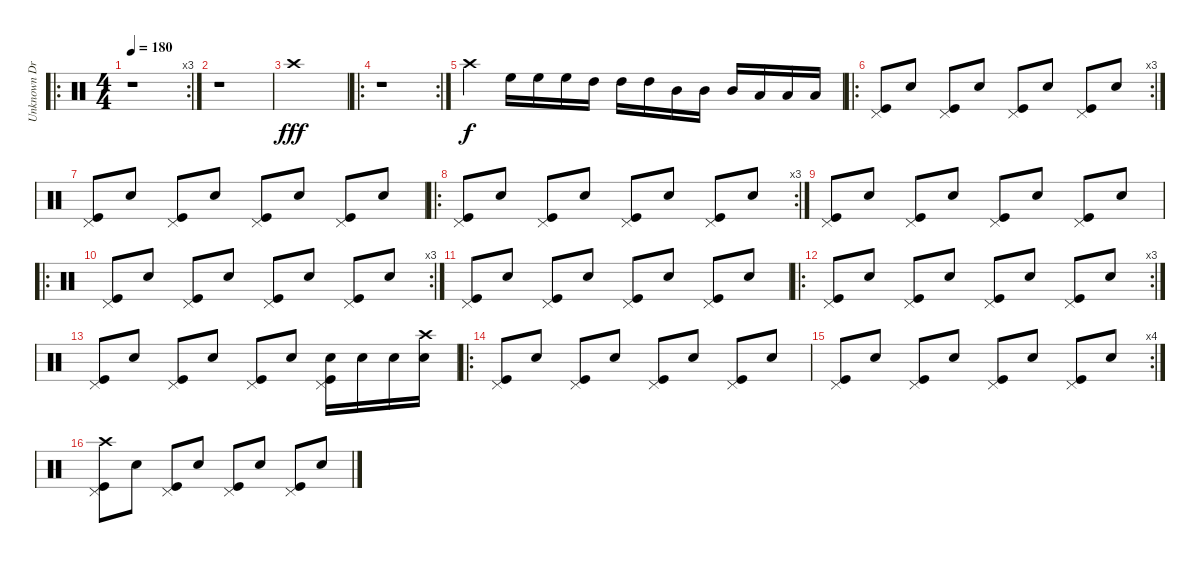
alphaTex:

\track ("Unknown Drummer" "Unknown Dr") {instrument percussion}
\staff {score}
\articulation defaults
\ro
\rc 3
\ts (4 4)
\tempo 180
\clef neutral
\ks c
r.1{dy fff} |
r.1 |
"Crash high (hit)".1 |
\ro
\rc 2
r.1 |
"Crash high (hit)".4{dy f} "High Floor Tom (hit)".16 "High Floor Tom (hit)".16 "High Floor Tom (hit)".16 "High Tom (hit)".16 "High Tom (hit)".16 "High Tom (hit)".16 "Mid Tom (hit)".16 "Mid Tom (hit)".16 "Mid Tom (hit)".16 "Low Tom (hit)".16 "Low Tom (hit)".16 "Low Tom (hit)".16 |
\ro
\rc 3
("Pedal Hi-Hat (hit)" "Kick (hit)").8 "Snare (hit) 2".8 ("Pedal Hi-Hat (hit)" "Kick (hit)").8 "Snare (hit) 2".8 ("Pedal Hi-Hat (hit)" "Kick (hit)").8 "Snare (hit) 2".8 ("Pedal Hi-Hat (hit)" "Kick (hit)").8 "Snare (hit) 2".8 |
("Pedal Hi-Hat (hit)" "Kick (hit)").8 "Snare (hit) 2".8 ("Pedal Hi-Hat (hit)" "Kick (hit)").8 "Snare (hit) 2".8 ("Pedal Hi-Hat (hit)" "Kick (hit)").8 "Snare (hit) 2".8 ("Pedal Hi-Hat (hit)" "Kick (hit)").8 "Snare (hit) 2".8 |
\ro
\rc 3
("Pedal Hi-Hat (hit)" "Kick (hit)").8 "Snare (hit) 2".8 ("Pedal Hi-Hat (hit)" "Kick (hit)").8 "Snare (hit) 2".8 ("Pedal Hi-Hat (hit)" "Kick (hit)").8 "Snare (hit) 2".8 ("Pedal Hi-Hat (hit)" "Kick (hit)").8 "Snare (hit) 2".8 |
("Pedal Hi-Hat (hit)" "Kick (hit)").8 "Snare (hit) 2".8 ("Pedal Hi-Hat (hit)" "Kick (hit)").8 "Snare (hit) 2".8 ("Pedal Hi-Hat (hit)" "Kick (hit)").8 "Snare (hit) 2".8 ("Pedal Hi-Hat (hit)" "Kick (hit)").8 "Snare (hit) 2".8 |
\ro
\rc 3
("Pedal Hi-Hat (hit)" "Kick (hit)").8 "Snare (hit) 2".8 ("Pedal Hi-Hat (hit)" "Kick (hit)").8 "Snare (hit) 2".8 ("Pedal Hi-Hat (hit)" "Kick (hit)").8 "Snare (hit) 2".8 ("Pedal Hi-Hat (hit)" "Kick (hit)").8 "Snare (hit) 2".8 |
("Pedal Hi-Hat (hit)" "Kick (hit)").8 "Snare (hit) 2".8 ("Pedal Hi-Hat (hit)" "Kick (hit)").8 "Snare (hit) 2".8 ("Pedal Hi-Hat (hit)" "Kick (hit)").8 "Snare (hit) 2".8 ("Pedal Hi-Hat (hit)" "Kick (hit)").8 "Snare (hit) 2".8 |
\ro
\rc 3
("Pedal Hi-Hat (hit)" "Kick (hit)").8 "Snare (hit) 2".8 ("Pedal Hi-Hat (hit)" "Kick (hit)").8 "Snare (hit) 2".8 ("Pedal Hi-Hat (hit)" "Kick (hit)").8 "Snare (hit) 2".8 ("Pedal Hi-Hat (hit)" "Kick (hit)").8 "Snare (hit) 2".8 |
("Pedal Hi-Hat (hit)" "Kick (hit)").8 "Snare (hit) 2".8 ("Pedal Hi-Hat (hit)" "Kick (hit)").8 "Snare (hit) 2".8 ("Pedal Hi-Hat (hit)" "Kick (hit)").8 "Snare (hit) 2".8 ("Pedal Hi-Hat (hit)" "Snare (hit) 2" "Kick (hit)").16 "Snare (hit) 2".16 "Snare (hit) 2".16 ("Crash high (hit)" "Snare (hit) 2").16 |
\ro
("Pedal Hi-Hat (hit)" "Kick (hit)").8 "Snare (hit) 2".8 ("Pedal Hi-Hat (hit)" "Kick (hit)").8 "Snare (hit) 2".8 ("Pedal Hi-Hat (hit)" "Kick (hit)").8 "Snare (hit) 2".8 ("Pedal Hi-Hat (hit)" "Kick (hit)").8 "Snare (hit) 2".8 |
\rc 4
("Pedal Hi-Hat (hit)" "Kick (hit)").8 "Snare (hit) 2".8 ("Pedal Hi-Hat (hit)" "Kick (hit)").8 "Snare (hit) 2".8 ("Pedal Hi-Hat (hit)" "Kick (hit)").8 "Snare (hit) 2".8 ("Pedal Hi-Hat (hit)" "Kick (hit)").8 "Snare (hit) 2".8 |
("Crash high (hit)" "Pedal Hi-Hat (hit)" "Kick (hit)").8 "Snare (hit) 2".8 ("Pedal Hi-Hat (hit)" "Kick (hit)").8 "Snare (hit) 2".8 ("Pedal Hi-Hat (hit)" "Kick (hit)").8 "Snare (hit) 2".8 ("Pedal Hi-Hat (hit)" "Kick (hit)").8 "Snare (hit) 2".8
